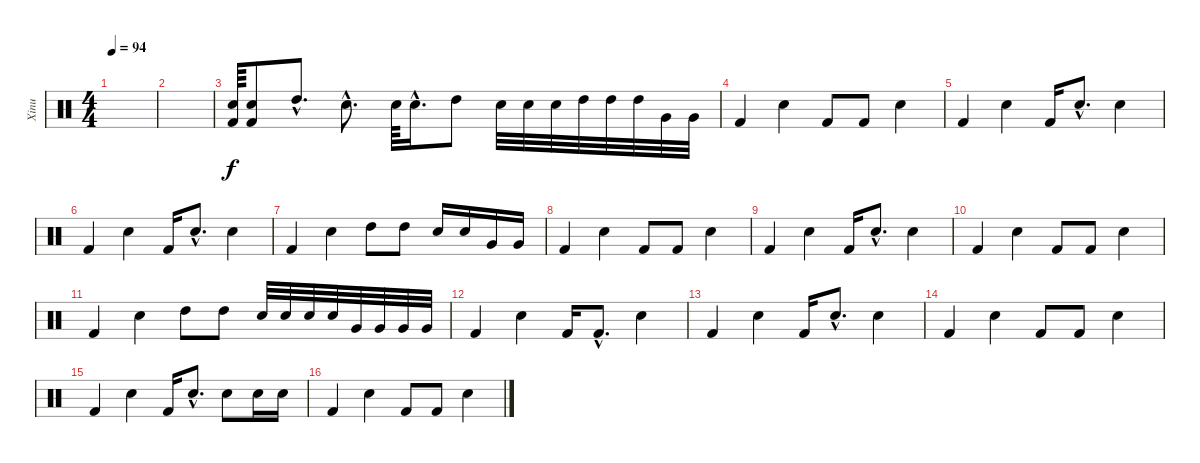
\track ("Xinu" "Xinu") {instrument percussion}
\staff {score}
\articulation defaults
\ts (4 4)
\tempo 94
\clef neutral
\ks c
|
|
("Snare (hit) 2" "Kick (hit) 2").64 ("Snare (hit) 2" "Kick (hit) 2").8 "High Tom (hit)"{hac}.8{d} "Snare (hit) 2"{hac}.8{d} "Snare (hit) 2".64 "Snare (hit) 2"{hac}.16{d} "High Tom (hit)".8 "Snare (hit) 2".32 "Snare (hit) 2".32 "Snare (hit) 2".32 "High Tom (hit)".32 "High Tom (hit)".32 "High Tom (hit)".32 "Very Low Tom (hit)".32 "Very Low Tom (hit)".32 |
"Kick (hit) 2".4 "Snare (hit) 2".4 "Kick (hit) 2".8 "Kick (hit) 2".8 "Snare (hit) 2".4 |
"Kick (hit) 2".4 "Snare (hit) 2".4 "Kick (hit) 2".16 "Snare (hit) 2"{hac}.8{d} "Snare (hit) 2".4 |
"Kick (hit) 2".4 "Snare (hit) 2".4 "Kick (hit) 2".16 "Snare (hit) 2"{hac}.8{d} "Snare (hit) 2".4 |
"Kick (hit) 2".4 "Snare (hit) 2".4 "High Tom (hit)".8 "High Tom (hit)".8 "Electric Snare (hit)".16 "Electric Snare (hit)".16 "Very Low Tom (hit)".16 "Very Low Tom (hit)".16 |
"Kick (hit) 2".4 "Snare (hit) 2".4 "Kick (hit) 2".8 "Kick (hit) 2".8 "Snare (hit) 2".4 |
"Kick (hit) 2".4 "Snare (hit) 2".4 "Kick (hit) 2".16 "Snare (hit) 2"{hac}.8{d} "Snare (hit) 2".4 |
"Kick (hit) 2".4 "Snare (hit) 2".4 "Kick (hit) 2".8 "Kick (hit) 2".8 "Snare (hit) 2".4 |
"Kick (hit) 2".4 "Snare (hit) 2".4 "High Tom (hit)".8 "High Tom (hit)".8 "Electric Snare (hit)".32 "Electric Snare (hit)".32 "Electric Snare (hit)".32 "Electric Snare (hit)".32 "Very Low Tom (hit)".32 "Very Low Tom (hit)".32 "Very Low Tom (hit)".32 "Very Low Tom (hit)".32 |
"Kick (hit) 2".4 "Snare (hit) 2".4 "Kick (hit) 2".16 "Kick (hit) 2"{hac}.8{d} "Snare (hit) 2".4 |
"Kick (hit) 2".4 "Snare (hit) 2".4 "Kick (hit) 2".16 "Snare (hit) 2"{hac}.8{d} "Snare (hit) 2".4 |
"Kick (hit) 2".4 "Snare (hit) 2".4 "Kick (hit) 2".8 "Kick (hit) 2".8 "Snare (hit) 2".4 |
"Kick (hit) 2".4 "Snare (hit) 2".4 "Kick (hit) 2".16 "Snare (hit) 2"{hac}.8{d} "Snare (hit) 2".8 "Snare (hit) 2".16 "Snare (hit) 2".16 |
"Kick (hit) 2".4 "Snare (hit) 2".4 "Kick (hit) 2".8 "Kick (hit) 2".8 "Snare (hit) 2".4
